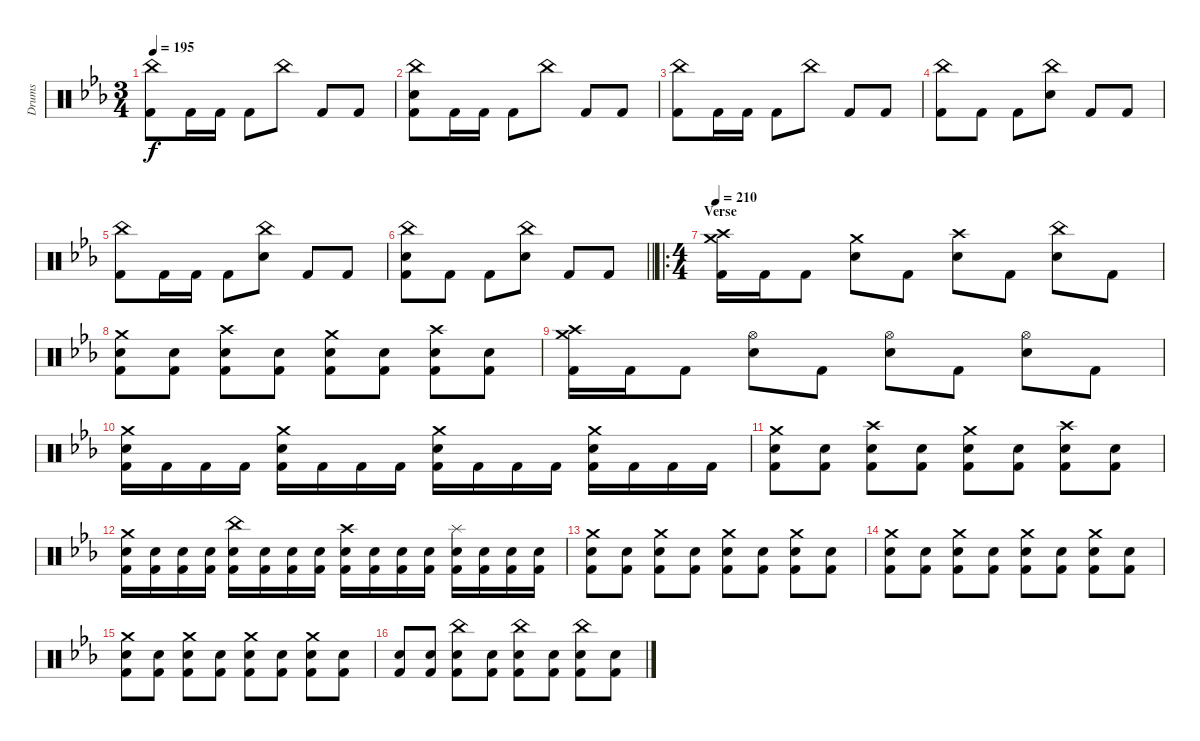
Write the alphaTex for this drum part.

\track ("Drums" "Drums") {instrument percussion}
\staff {score}
\articulation defaults
\ts (3 4)
\tempo 195
\clef neutral
\ks cminor
("China (hit)" "Kick (hit) 2").8{dy f} "Kick (hit) 2".16 "Kick (hit) 2".16 "Kick (hit) 2".8 "China (hit)".8 "Kick (hit) 2".8 "Kick (hit) 2".8 |
("China (hit)" "Electric Snare (hit)" "Kick (hit) 2").8 "Kick (hit) 2".16 "Kick (hit) 2".16 "Kick (hit) 2".8 "China (hit)".8 "Kick (hit) 2".8 "Kick (hit) 2".8 |
("China (hit)" "Kick (hit) 2").8 "Kick (hit) 2".16 "Kick (hit) 2".16 "Kick (hit) 2".8 "China (hit)".8 "Kick (hit) 2".8 "Kick (hit) 2".8 |
("China (hit)" "Kick (hit) 2").8 "Kick (hit) 2".8 "Kick (hit) 2".8 ("China (hit)" "Electric Snare (hit)").8 "Kick (hit) 2".8 "Kick (hit) 2".8 |
("China (hit)" "Kick (hit) 2").8 "Kick (hit) 2".16 "Kick (hit) 2".16 "Kick (hit) 2".8 ("China (hit)" "Electric Snare (hit)").8 "Kick (hit) 2".8 "Kick (hit) 2".8 |
\barLineRight lightlight
("China (hit)" "Electric Snare (hit)" "Kick (hit) 2").8 "Kick (hit) 2".8 "Kick (hit) 2".8 ("China (hit)" "Electric Snare (hit)").8 "Kick (hit) 2".8 "Kick (hit) 2".8 |
\ro
\ts (4 4)
\section ("" "Verse")
\tempo 210
("Crash medium (hit)" "Crash high (hit)" "Kick (hit) 2").16 "Kick (hit) 2".16 "Kick (hit) 2".8 ("Crash medium (hit)" "Electric Snare (hit)").8 "Kick (hit) 2".8 ("Crash high (hit)" "Electric Snare (hit)").8 "Kick (hit) 2".8 ("China (hit)" "Electric Snare (hit)").8 "Kick (hit) 2".8 |
("Crash medium (hit)" "Electric Snare (hit)" "Kick (hit) 2").8 ("Electric Snare (hit)" "Kick (hit) 2").8 ("Crash high (hit)" "Electric Snare (hit)" "Kick (hit) 2").8 ("Electric Snare (hit)" "Kick (hit) 2").8 ("Crash medium (hit)" "Electric Snare (hit)" "Kick (hit) 2").8 ("Electric Snare (hit)" "Kick (hit) 2").8 ("Crash high (hit)" "Electric Snare (hit)" "Kick (hit) 2").8 ("Electric Snare (hit)" "Kick (hit) 2").8 |
("Crash medium (hit)" "Crash high (hit)" "Kick (hit) 2").16 "Kick (hit) 2".16 "Kick (hit) 2".8 ("Hi-Hat (open)" "Electric Snare (hit)").8 "Kick (hit) 2".8 ("Hi-Hat (open)" "Electric Snare (hit)").8 "Kick (hit) 2".8 ("Hi-Hat (open)" "Electric Snare (hit)").8 "Kick (hit) 2".8 |
("Crash medium (hit)" "Electric Snare (hit)" "Kick (hit) 2").16 "Kick (hit) 2".16 "Kick (hit) 2".16 "Kick (hit) 2".16 ("Crash medium (hit)" "Electric Snare (hit)" "Kick (hit) 2").16 "Kick (hit) 2".16 "Kick (hit) 2".16 "Kick (hit) 2".16 ("Crash medium (hit)" "Electric Snare (hit)" "Kick (hit) 2").16 "Kick (hit) 2".16 "Kick (hit) 2".16 "Kick (hit) 2".16 ("Crash medium (hit)" "Electric Snare (hit)" "Kick (hit) 2").16 "Kick (hit) 2".16 "Kick (hit) 2".16 "Kick (hit) 2".16 |
("Crash medium (hit)" "Electric Snare (hit)" "Kick (hit) 2").8 ("Electric Snare (hit)" "Kick (hit) 2").8 ("Crash high (hit)" "Electric Snare (hit)" "Kick (hit) 2").8 ("Electric Snare (hit)" "Kick (hit) 2").8 ("Crash medium (hit)" "Electric Snare (hit)" "Kick (hit) 2").8 ("Electric Snare (hit)" "Kick (hit) 2").8 ("Crash high (hit)" "Electric Snare (hit)" "Kick (hit) 2").8 ("Electric Snare (hit)" "Kick (hit) 2").8 |
("Crash medium (hit)" "Electric Snare (hit)" "Kick (hit) 2").16 ("Electric Snare (hit)" "Kick (hit) 2").16 ("Electric Snare (hit)" "Kick (hit) 2").16 ("Electric Snare (hit)" "Kick (hit) 2").16 ("China (hit)" "Electric Snare (hit)" "Kick (hit) 2").16 ("Electric Snare (hit)" "Kick (hit) 2").16 ("Electric Snare (hit)" "Kick (hit) 2").16 ("Electric Snare (hit)" "Kick (hit) 2").16 ("Crash high (hit)" "Electric Snare (hit)" "Kick (hit) 2").16 ("Electric Snare (hit)" "Kick (hit) 2").16 ("Electric Snare (hit)" "Kick (hit) 2").16 ("Electric Snare (hit)" "Kick (hit) 2").16 ("Splash (hit)" "Electric Snare (hit)" "Kick (hit) 2").16 ("Electric Snare (hit)" "Kick (hit) 2").16 ("Electric Snare (hit)" "Kick (hit) 2").16 ("Electric Snare (hit)" "Kick (hit) 2").16 |
("Crash medium (hit)" "Electric Snare (hit)" "Kick (hit) 2").8 ("Electric Snare (hit)" "Kick (hit) 2").8 ("Crash medium (hit)" "Electric Snare (hit)" "Kick (hit) 2").8 ("Electric Snare (hit)" "Kick (hit) 2").8 ("Crash medium (hit)" "Electric Snare (hit)" "Kick (hit) 2").8 ("Electric Snare (hit)" "Kick (hit) 2").8 ("Crash medium (hit)" "Electric Snare (hit)" "Kick (hit) 2").8 ("Electric Snare (hit)" "Kick (hit) 2").8 |
("Crash medium (hit)" "Electric Snare (hit)" "Kick (hit) 2").8 ("Electric Snare (hit)" "Kick (hit) 2").8 ("Crash medium (hit)" "Electric Snare (hit)" "Kick (hit) 2").8 ("Electric Snare (hit)" "Kick (hit) 2").8 ("Crash medium (hit)" "Electric Snare (hit)" "Kick (hit) 2").8 ("Electric Snare (hit)" "Kick (hit) 2").8 ("Crash medium (hit)" "Electric Snare (hit)" "Kick (hit) 2").8 ("Electric Snare (hit)" "Kick (hit) 2").8 |
("Crash medium (hit)" "Electric Snare (hit)" "Kick (hit) 2").8 ("Electric Snare (hit)" "Kick (hit) 2").8 ("Crash medium (hit)" "Electric Snare (hit)" "Kick (hit) 2").8 ("Electric Snare (hit)" "Kick (hit) 2").8 ("Crash medium (hit)" "Electric Snare (hit)" "Kick (hit) 2").8 ("Electric Snare (hit)" "Kick (hit) 2").8 ("Crash medium (hit)" "Electric Snare (hit)" "Kick (hit) 2").8 ("Electric Snare (hit)" "Kick (hit) 2").8 |
("Electric Snare (hit)" "Kick (hit) 2").8 ("Electric Snare (hit)" "Kick (hit) 2").8 ("China (hit)" "Electric Snare (hit)" "Kick (hit) 2").8 ("Electric Snare (hit)" "Kick (hit) 2").8 ("China (hit)" "Electric Snare (hit)" "Kick (hit) 2").8 ("Electric Snare (hit)" "Kick (hit) 2").8 ("China (hit)" "Electric Snare (hit)" "Kick (hit) 2").8 ("Electric Snare (hit)" "Kick (hit) 2").8
